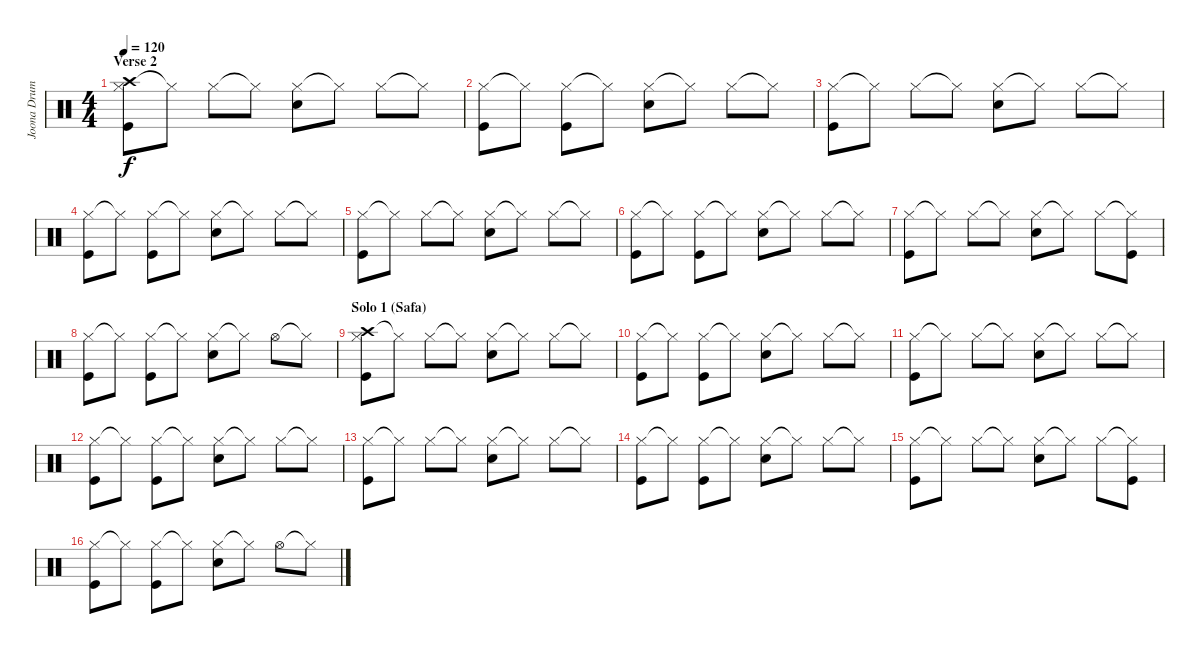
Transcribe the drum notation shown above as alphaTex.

\track ("Joona Drums" "Joona Drum") {instrument percussion}
\staff {score}
\articulation defaults
\ts (4 4)
\section ("" "Verse 2")
\tempo 120
\clef neutral
\ks c
("Crash high (hit)" "Hi-Hat (closed)" "Kick (hit)").8{dy f} "Hi-Hat (closed)"{t}.8 "Hi-Hat (closed)".8 "Hi-Hat (closed)"{t}.8 ("Hi-Hat (closed)" "Snare (hit) 2").8 "Hi-Hat (closed)"{t}.8 "Hi-Hat (closed)".8 "Hi-Hat (closed)"{t}.8 |
("Hi-Hat (closed)" "Kick (hit)").8 "Hi-Hat (closed)"{t}.8 ("Hi-Hat (closed)" "Kick (hit)").8 "Hi-Hat (closed)"{t}.8 ("Hi-Hat (closed)" "Snare (hit) 2").8 "Hi-Hat (closed)"{t}.8 "Hi-Hat (closed)".8 "Hi-Hat (closed)"{t}.8 |
("Hi-Hat (closed)" "Kick (hit)").8 "Hi-Hat (closed)"{t}.8 "Hi-Hat (closed)".8 "Hi-Hat (closed)"{t}.8 ("Hi-Hat (closed)" "Snare (hit) 2").8 "Hi-Hat (closed)"{t}.8 "Hi-Hat (closed)".8 "Hi-Hat (closed)"{t}.8 |
("Hi-Hat (closed)" "Kick (hit)").8 "Hi-Hat (closed)"{t}.8 ("Hi-Hat (closed)" "Kick (hit)").8 "Hi-Hat (closed)"{t}.8 ("Hi-Hat (closed)" "Snare (hit) 2").8 "Hi-Hat (closed)"{t}.8 "Hi-Hat (closed)".8 "Hi-Hat (closed)"{t}.8 |
("Hi-Hat (closed)" "Kick (hit)").8 "Hi-Hat (closed)"{t}.8 "Hi-Hat (closed)".8 "Hi-Hat (closed)"{t}.8 ("Hi-Hat (closed)" "Snare (hit) 2").8 "Hi-Hat (closed)"{t}.8 "Hi-Hat (closed)".8 "Hi-Hat (closed)"{t}.8 |
("Hi-Hat (closed)" "Kick (hit)").8 "Hi-Hat (closed)"{t}.8 ("Hi-Hat (closed)" "Kick (hit)").8 "Hi-Hat (closed)"{t}.8 ("Hi-Hat (closed)" "Snare (hit) 2").8 "Hi-Hat (closed)"{t}.8 "Hi-Hat (closed)".8 "Hi-Hat (closed)"{t}.8 |
("Hi-Hat (closed)" "Kick (hit)").8 "Hi-Hat (closed)"{t}.8 "Hi-Hat (closed)".8 "Hi-Hat (closed)"{t}.8 ("Hi-Hat (closed)" "Snare (hit) 2").8 "Hi-Hat (closed)"{t}.8 "Hi-Hat (closed)".8 ("Hi-Hat (closed)"{t} "Kick (hit)").8 |
("Hi-Hat (closed)" "Kick (hit)").8 "Hi-Hat (closed)"{t}.8 ("Hi-Hat (closed)" "Kick (hit)").8 "Hi-Hat (closed)"{t}.8 ("Hi-Hat (closed)" "Snare (hit) 2").8 "Hi-Hat (closed)"{t}.8 "Hi-Hat (open)".8 "Hi-Hat (closed)"{t}.8 |
\section ("" "Solo 1 (Safa)")
("Crash high (hit)" "Hi-Hat (closed)" "Kick (hit)").8 "Hi-Hat (closed)"{t}.8 "Hi-Hat (closed)".8 "Hi-Hat (closed)"{t}.8 ("Hi-Hat (closed)" "Snare (hit) 2").8 "Hi-Hat (closed)"{t}.8 "Hi-Hat (closed)".8 "Hi-Hat (closed)"{t}.8 |
("Hi-Hat (closed)" "Kick (hit)").8 "Hi-Hat (closed)"{t}.8 ("Hi-Hat (closed)" "Kick (hit)").8 "Hi-Hat (closed)"{t}.8 ("Hi-Hat (closed)" "Snare (hit) 2").8 "Hi-Hat (closed)"{t}.8 "Hi-Hat (closed)".8 "Hi-Hat (closed)"{t}.8 |
("Hi-Hat (closed)" "Kick (hit)").8 "Hi-Hat (closed)"{t}.8 "Hi-Hat (closed)".8 "Hi-Hat (closed)"{t}.8 ("Hi-Hat (closed)" "Snare (hit) 2").8 "Hi-Hat (closed)"{t}.8 "Hi-Hat (closed)".8 "Hi-Hat (closed)"{t}.8 |
("Hi-Hat (closed)" "Kick (hit)").8 "Hi-Hat (closed)"{t}.8 ("Hi-Hat (closed)" "Kick (hit)").8 "Hi-Hat (closed)"{t}.8 ("Hi-Hat (closed)" "Snare (hit) 2").8 "Hi-Hat (closed)"{t}.8 "Hi-Hat (closed)".8 "Hi-Hat (closed)"{t}.8 |
("Hi-Hat (closed)" "Kick (hit)").8 "Hi-Hat (closed)"{t}.8 "Hi-Hat (closed)".8 "Hi-Hat (closed)"{t}.8 ("Hi-Hat (closed)" "Snare (hit) 2").8 "Hi-Hat (closed)"{t}.8 "Hi-Hat (closed)".8 "Hi-Hat (closed)"{t}.8 |
("Hi-Hat (closed)" "Kick (hit)").8 "Hi-Hat (closed)"{t}.8 ("Hi-Hat (closed)" "Kick (hit)").8 "Hi-Hat (closed)"{t}.8 ("Hi-Hat (closed)" "Snare (hit) 2").8 "Hi-Hat (closed)"{t}.8 "Hi-Hat (closed)".8 "Hi-Hat (closed)"{t}.8 |
("Hi-Hat (closed)" "Kick (hit)").8 "Hi-Hat (closed)"{t}.8 "Hi-Hat (closed)".8 "Hi-Hat (closed)"{t}.8 ("Hi-Hat (closed)" "Snare (hit) 2").8 "Hi-Hat (closed)"{t}.8 "Hi-Hat (closed)".8 ("Hi-Hat (closed)"{t} "Kick (hit)").8 |
("Hi-Hat (closed)" "Kick (hit)").8 "Hi-Hat (closed)"{t}.8 ("Hi-Hat (closed)" "Kick (hit)").8 "Hi-Hat (closed)"{t}.8 ("Hi-Hat (closed)" "Snare (hit) 2").8 "Hi-Hat (closed)"{t}.8 "Hi-Hat (open)".8 "Hi-Hat (closed)"{t}.8
